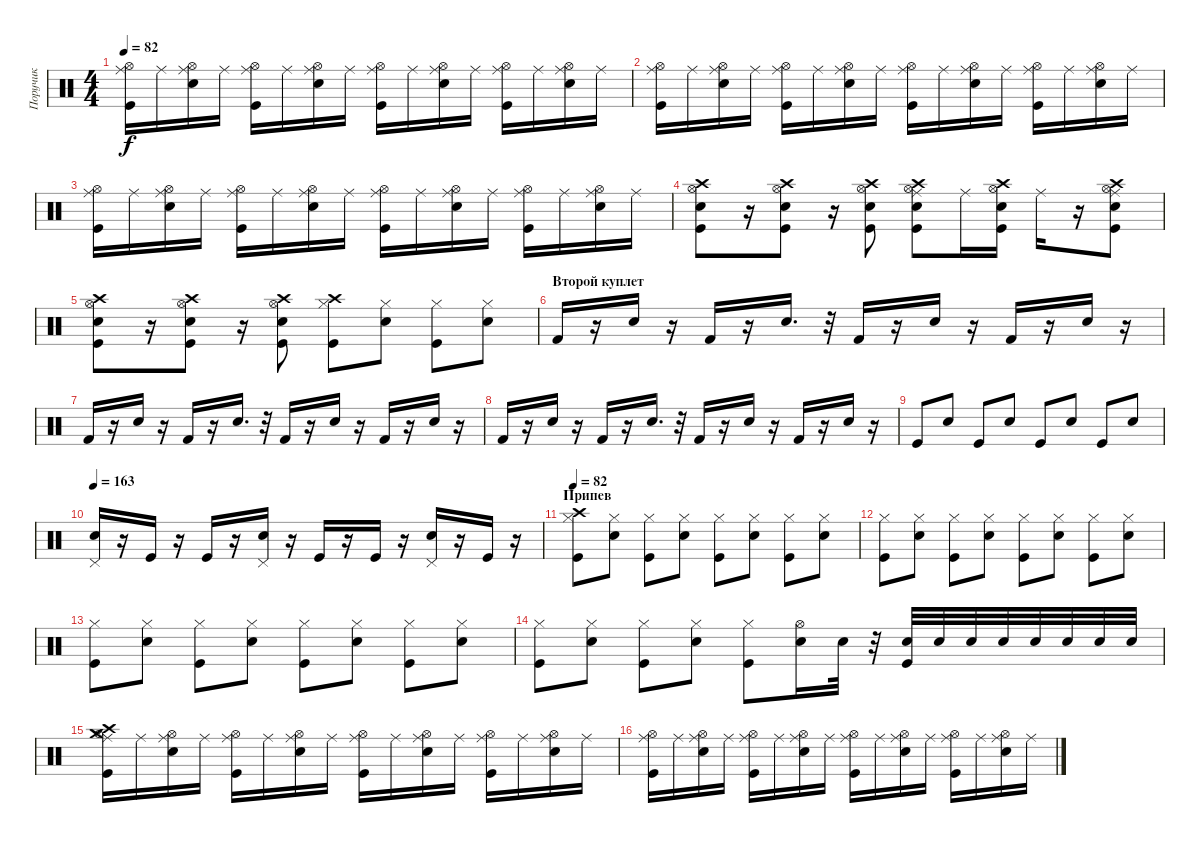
\track ("Поручик" "Поручик") {instrument percussion}
\staff {score}
\articulation defaults
\ts (4 4)
\tempo 82
\clef neutral
\ks c
("Hi-Hat (open)" "Kick (hit)" "Ride (middle)").16{dy f} "Ride (middle)".16 ("Ride (middle)" "Snare (hit) 2" "Hi-Hat (open)").16 "Ride (middle)".16 ("Ride (middle)" "Hi-Hat (open)" "Kick (hit)").16 "Ride (middle)".16 ("Snare (hit) 2" "Ride (middle)" "Hi-Hat (open)").16 "Ride (middle)".16 ("Hi-Hat (open)" "Ride (middle)" "Kick (hit)").16 "Ride (middle)".16 ("Ride (middle)" "Hi-Hat (open)" "Snare (hit) 2").16 "Ride (middle)".16 ("Ride (middle)" "Hi-Hat (open)" "Kick (hit)").16 "Ride (middle)".16 ("Hi-Hat (open)" "Ride (middle)" "Snare (hit) 2").16 "Ride (middle)".16 |
("Kick (hit)" "Ride (middle)" "Hi-Hat (open)").16 "Ride (middle)".16 ("Snare (hit) 2" "Hi-Hat (open)" "Ride (middle)").16 "Ride (middle)".16 ("Kick (hit)" "Ride (middle)" "Hi-Hat (open)").16 "Ride (middle)".16 ("Ride (middle)" "Hi-Hat (open)" "Snare (hit) 2").16 "Ride (middle)".16 ("Hi-Hat (open)" "Ride (middle)" "Kick (hit)").16 "Ride (middle)".16 ("Hi-Hat (open)" "Ride (middle)" "Snare (hit) 2").16 "Ride (middle)".16 ("Ride (middle)" "Kick (hit)" "Hi-Hat (open)").16 "Ride (middle)".16 ("Snare (hit) 2" "Hi-Hat (open)" "Ride (middle)").16 "Ride (middle)".16 |
("Hi-Hat (open)" "Kick (hit)" "Ride (middle)").16 "Ride (middle)".16 ("Snare (hit) 2" "Ride (middle)" "Hi-Hat (open)").16 "Ride (middle)".16 ("Kick (hit)" "Ride (middle)" "Hi-Hat (open)").16 "Ride (middle)".16 ("Snare (hit) 2" "Hi-Hat (open)" "Ride (middle)").16 "Ride (middle)".16 ("Hi-Hat (open)" "Ride (middle)" "Kick (hit)").16 "Ride (middle)".16 ("Ride (middle)" "Hi-Hat (open)" "Snare (hit) 2").16 "Ride (middle)".16 ("Ride (middle)" "Hi-Hat (open)" "Kick (hit)").16 "Ride (middle)".16 ("Hi-Hat (open)" "Ride (middle)" "Snare (hit) 2").16 "Ride (middle)".16 |
("Hi-Hat (open)" "Kick (hit)" "Crash high (hit)" "Snare (hit) 2").8 r.16 ("Hi-Hat (open)" "Snare (hit) 2" "Crash high (hit)" "Kick (hit)").8 r.16 ("Snare (hit) 2" "Hi-Hat (open)" "Kick (hit)" "Crash high (hit)").8 ("Hi-Hat (open)" "Ride (middle)" "Kick (hit)" "Snare (hit) 2" "Crash high (hit)").8 "Ride (middle)".16 ("Hi-Hat (open)" "Kick (hit)" "Snare (hit) 2" "Crash high (hit)").16 "Ride (middle)".16 r.16 ("Snare (hit) 2" "Hi-Hat (open)" "Ride (middle)" "Crash high (hit)" "Kick (hit)").8 |
("Snare (hit) 2" "Kick (hit)" "Hi-Hat (open)" "Crash high (hit)").8 r.16 ("Crash high (hit)" "Hi-Hat (open)" "Snare (hit) 2" "Kick (hit)").8 r.16 ("Crash high (hit)" "Hi-Hat (open)" "Kick (hit)" "Snare (hit) 2").8 ("Hi-Hat (closed)" "Crash high (hit)" "Kick (hit)").8 ("Snare (hit) 2" "Hi-Hat (closed)").8 ("Hi-Hat (closed)" "Kick (hit)").8 ("Hi-Hat (closed)" "Snare (hit) 2").8 |
\section ("" "Второй куплет")
"Kick (hit) 2".16 r.16 "Snare (hit) 2".16 r.16 "Kick (hit) 2".16 r.16 "Snare (hit) 2".16{d} r.32 "Kick (hit) 2".16 r.16 "Snare (hit) 2".16 r.16 "Kick (hit) 2".16 r.16 "Snare (hit) 2".16 r.16 |
"Kick (hit) 2".16 r.16 "Snare (hit) 2".16 r.16 "Kick (hit) 2".16 r.16 "Snare (hit) 2".16{d} r.32 "Kick (hit) 2".16 r.16 "Snare (hit) 2".16 r.16 "Kick (hit) 2".16 r.16 "Snare (hit) 2".16 r.16 |
"Kick (hit) 2".16 r.16 "Snare (hit) 2".16 r.16 "Kick (hit) 2".16 r.16 "Snare (hit) 2".16{d} r.32 "Kick (hit) 2".16 r.16 "Snare (hit) 2".16 r.16 "Kick (hit) 2".16 r.16 "Snare (hit) 2".16 r.16 |
"Kick (hit)".8 "Snare (hit) 2".8 "Kick (hit)".8 "Snare (hit) 2".8 "Kick (hit)".8 "Snare (hit) 2".8 "Kick (hit)".8 "Snare (hit) 2".8 |
\tempo 163
("Pedal Hi-Hat (hit)" "Snare (hit) 2").16 r.16 "Kick (hit)".16 r.16 "Kick (hit)".16 r.16 ("Snare (hit) 2" "Pedal Hi-Hat (hit)").16 r.16 "Kick (hit)".16 r.16 "Kick (hit)".16 r.16 ("Pedal Hi-Hat (hit)" "Snare (hit) 2").16 r.16 "Kick (hit)".16 r.16 |
\section ("" "Припев")
\tempo 82
("Crash high (hit)" "Hi-Hat (closed)" "Kick (hit)").8 ("Snare (hit) 2" "Hi-Hat (closed)").8 ("Hi-Hat (closed)" "Kick (hit)").8 ("Hi-Hat (closed)" "Snare (hit) 2").8 ("Kick (hit)" "Hi-Hat (closed)").8 ("Hi-Hat (closed)" "Snare (hit) 2").8 ("Hi-Hat (closed)" "Kick (hit)").8 ("Snare (hit) 2" "Hi-Hat (closed)").8 |
("Hi-Hat (closed)" "Kick (hit)").8 ("Snare (hit) 2" "Hi-Hat (closed)").8 ("Kick (hit)" "Hi-Hat (closed)").8 ("Hi-Hat (closed)" "Snare (hit) 2").8 ("Kick (hit)" "Hi-Hat (closed)").8 ("Hi-Hat (closed)" "Snare (hit) 2").8 ("Hi-Hat (closed)" "Kick (hit)").8 ("Hi-Hat (closed)" "Snare (hit) 2").8 |
("Hi-Hat (closed)" "Kick (hit)").8 ("Hi-Hat (closed)" "Snare (hit) 2").8 ("Kick (hit)" "Hi-Hat (closed)").8 ("Hi-Hat (closed)" "Snare (hit) 2").8 ("Kick (hit)" "Hi-Hat (closed)").8 ("Snare (hit) 2" "Hi-Hat (closed)").8 ("Kick (hit)" "Hi-Hat (closed)").8 ("Hi-Hat (closed)" "Snare (hit) 2").8 |
("Hi-Hat (closed)" "Kick (hit)").8 ("Snare (hit) 2" "Hi-Hat (closed)").8 ("Hi-Hat (closed)" "Kick (hit)").8 ("Hi-Hat (closed)" "Snare (hit) 2").8 ("Hi-Hat (closed)" "Kick (hit)").8 ("Snare (hit) 2" "Hi-Hat (open)").16 "Snare (hit) 2".32 r.32 ("Snare (hit) 2" "Kick (hit)").32 "Snare (hit) 2".32 "Snare (hit) 2".32 "Snare (hit) 2".32 "Snare (hit) 2".32 "Snare (hit) 2".32 "Snare (hit) 2".32 "Snare (hit) 2".32 |
("Ride (middle)" "Crash medium (hit)" "Crash high (hit)" "Hi-Hat (open)" "Kick (hit)").16 "Ride (middle)".16 ("Ride (middle)" "Hi-Hat (open)" "Snare (hit) 2").16 "Ride (middle)".16 ("Hi-Hat (open)" "Ride (middle)" "Kick (hit)").16 "Ride (middle)".16 ("Hi-Hat (open)" "Snare (hit) 2" "Ride (middle)").16 "Ride (middle)".16 ("Ride (middle)" "Hi-Hat (open)" "Kick (hit)").16 "Ride (middle)".16 ("Snare (hit) 2" "Hi-Hat (open)" "Ride (middle)").16 "Ride (middle)".16 ("Kick (hit)" "Ride (middle)" "Hi-Hat (open)").16 "Ride (middle)".16 ("Ride (middle)" "Snare (hit) 2" "Hi-Hat (open)").16 "Ride (middle)".16 |
("Hi-Hat (open)" "Ride (middle)" "Kick (hit)").16 "Ride (middle)".16 ("Ride (middle)" "Hi-Hat (open)" "Snare (hit) 2").16 "Ride (middle)".16 ("Ride (middle)" "Kick (hit)" "Hi-Hat (open)").16 "Ride (middle)".16 ("Ride (middle)" "Hi-Hat (open)" "Snare (hit) 2").16 "Ride (middle)".16 ("Ride (middle)" "Hi-Hat (open)" "Kick (hit)").16 "Ride (middle)".16 ("Hi-Hat (open)" "Ride (middle)" "Snare (hit) 2").16 "Ride (middle)".16 ("Kick (hit)" "Ride (middle)" "Hi-Hat (open)").16 "Ride (middle)".16 ("Snare (hit) 2" "Hi-Hat (open)" "Ride (middle)").16 "Ride (middle)".16
